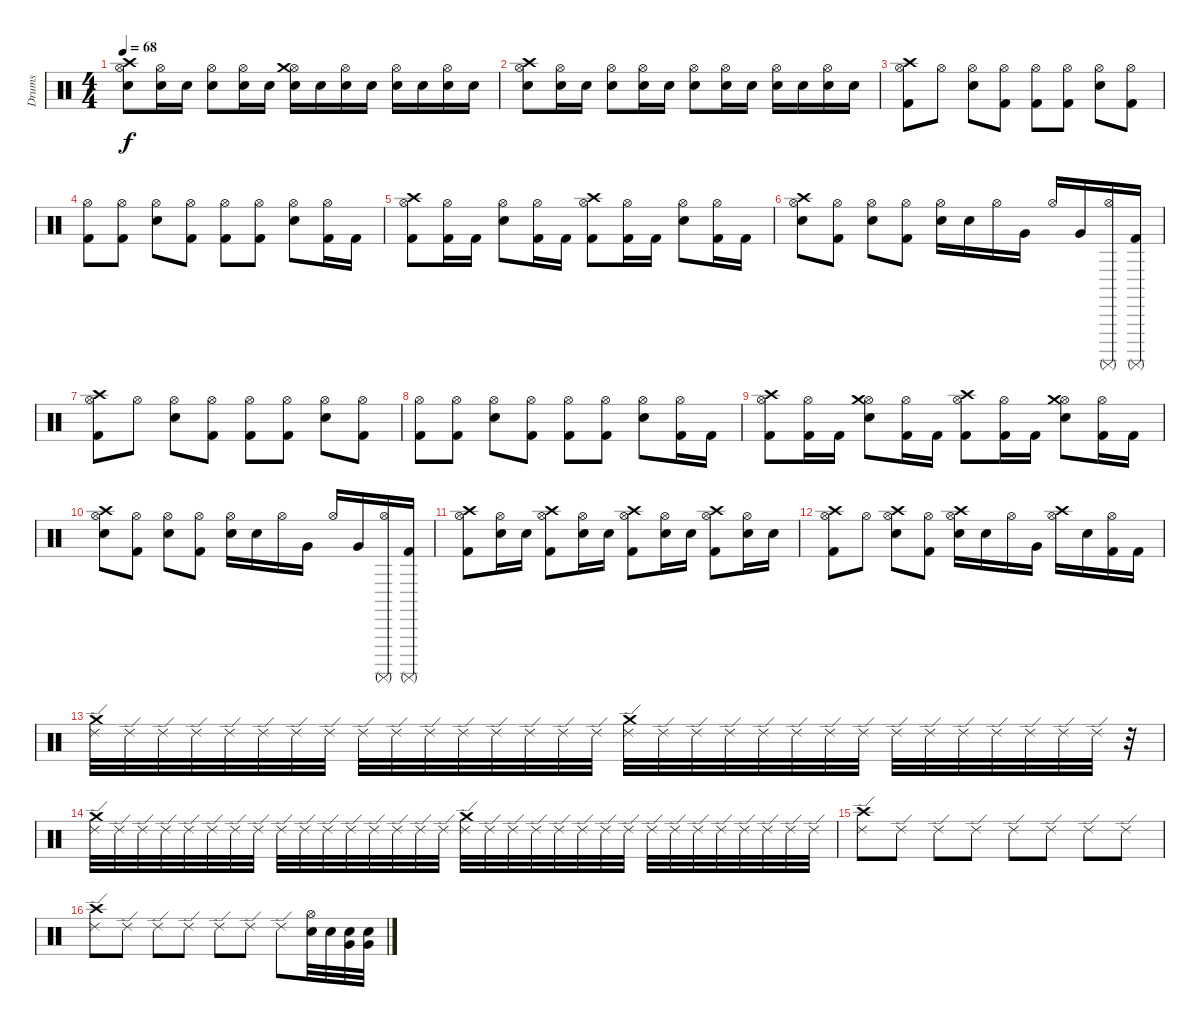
\track ("Drums" "Drums") {instrument percussion}
\staff {score}
\articulation defaults
\ts (4 4)
\tempo 68
\clef neutral
\ks c
("Snare (hit) 2" "Hi-Hat (open)" "Crash high (hit)").8{dy f} ("Snare (hit) 2" "Hi-Hat (open)").16 "Snare (hit) 2".16 ("Snare (hit) 2" "Hi-Hat (open)").8 ("Snare (hit) 2" "Hi-Hat (open)").16 "Snare (hit) 2".16 ("Snare (hit) 2" "Hi-Hat (open)" "Crash medium (hit)").16 "Snare (hit) 2".16 ("Snare (hit) 2" "Hi-Hat (open)").16 "Snare (hit) 2".16 ("Snare (hit) 2" "Hi-Hat (open)").16 "Snare (hit) 2".16 ("Snare (hit) 2" "Hi-Hat (open)").16 "Snare (hit) 2".16 |
("Snare (hit) 2" "Crash high (hit)" "Hi-Hat (open)").8 ("Snare (hit) 2" "Hi-Hat (open)").16 "Snare (hit) 2".16 ("Snare (hit) 2" "Hi-Hat (open)").8 ("Snare (hit) 2" "Hi-Hat (open)").16 "Snare (hit) 2".16 ("Snare (hit) 2" "Hi-Hat (open)").8 ("Snare (hit) 2" "Hi-Hat (open)").16 "Snare (hit) 2".16 ("Snare (hit) 2" "Hi-Hat (open)").16 "Snare (hit) 2".16 ("Snare (hit) 2" "Hi-Hat (open)").16 "Snare (hit) 2".16 |
("Kick (hit) 2" "Hi-Hat (open)" "Crash high (hit)").8 "Hi-Hat (open)".8 ("Snare (hit) 2" "Hi-Hat (open)").8 ("Kick (hit) 2" "Hi-Hat (open)").8 ("Kick (hit) 2" "Hi-Hat (open)").8 ("Kick (hit) 2" "Hi-Hat (open)").8 ("Snare (hit) 2" "Hi-Hat (open)").8 ("Kick (hit) 2" "Hi-Hat (open)").8 |
("Kick (hit) 2" "Hi-Hat (open)").8 ("Kick (hit) 2" "Hi-Hat (open)").8 ("Snare (hit) 2" "Hi-Hat (open)").8 ("Kick (hit) 2" "Hi-Hat (open)").8 ("Kick (hit) 2" "Hi-Hat (open)").8 ("Kick (hit) 2" "Hi-Hat (open)").8 ("Snare (hit) 2" "Hi-Hat (open)").8 ("Kick (hit) 2" "Hi-Hat (open)").16 "Kick (hit) 2".16 |
("Kick (hit) 2" "Crash high (hit)" "Hi-Hat (open)").8 ("Kick (hit) 2" "Hi-Hat (open)").16 "Kick (hit) 2".16 ("Snare (hit) 2" "Hi-Hat (open)").8 ("Kick (hit) 2" "Hi-Hat (open)").16 "Kick (hit) 2".16 ("Kick (hit) 2" "Hi-Hat (open)" "Crash high (hit)").8 ("Kick (hit) 2" "Hi-Hat (open)").16 "Kick (hit) 2".16 ("Snare (hit) 2" "Hi-Hat (open)").8 ("Kick (hit) 2" "Hi-Hat (open)").16 "Kick (hit) 2".16 |
("Snare (hit) 2" "Crash high (hit)" "Hi-Hat (open)").8 ("Kick (hit) 2" "Hi-Hat (open)").8 ("Snare (hit) 2" "Hi-Hat (open)").8 ("Kick (hit) 2" "Hi-Hat (open)").8 ("Snare (hit) 2" "Hi-Hat (open)").16 "Snare (hit) 2".16 "Hi-Hat (open)".16 "Very Low Tom (hit)".16 "Hi-Hat (open)".16 "Very Low Tom (hit)".16 ("Surdo (mute)" "Hi-Hat (open)").16 ("Surdo (mute)" "Kick (hit) 2").16 |
("Kick (hit) 2" "Hi-Hat (open)" "Crash high (hit)").8 "Hi-Hat (open)".8 ("Snare (hit) 2" "Hi-Hat (open)").8 ("Kick (hit) 2" "Hi-Hat (open)").8 ("Kick (hit) 2" "Hi-Hat (open)").8 ("Kick (hit) 2" "Hi-Hat (open)").8 ("Snare (hit) 2" "Hi-Hat (open)").8 ("Kick (hit) 2" "Hi-Hat (open)").8 |
("Kick (hit) 2" "Hi-Hat (open)").8 ("Kick (hit) 2" "Hi-Hat (open)").8 ("Snare (hit) 2" "Hi-Hat (open)").8 ("Kick (hit) 2" "Hi-Hat (open)").8 ("Kick (hit) 2" "Hi-Hat (open)").8 ("Kick (hit) 2" "Hi-Hat (open)").8 ("Snare (hit) 2" "Hi-Hat (open)").8 ("Kick (hit) 2" "Hi-Hat (open)").16 "Kick (hit) 2".16 |
("Kick (hit) 2" "Crash high (hit)" "Hi-Hat (open)").8 ("Kick (hit) 2" "Hi-Hat (open)").16 "Kick (hit) 2".16 ("Snare (hit) 2" "Hi-Hat (open)" "Crash medium (hit)").8 ("Kick (hit) 2" "Hi-Hat (open)").16 "Kick (hit) 2".16 ("Kick (hit) 2" "Hi-Hat (open)" "Crash high (hit)").8 ("Kick (hit) 2" "Hi-Hat (open)").16 "Kick (hit) 2".16 ("Snare (hit) 2" "Hi-Hat (open)" "Crash medium (hit)").8 ("Kick (hit) 2" "Hi-Hat (open)").16 "Kick (hit) 2".16 |
("Snare (hit) 2" "Crash high (hit)" "Hi-Hat (open)").8 ("Kick (hit) 2" "Hi-Hat (open)").8 ("Snare (hit) 2" "Hi-Hat (open)").8 ("Kick (hit) 2" "Hi-Hat (open)").8 ("Snare (hit) 2" "Hi-Hat (open)").16 "Snare (hit) 2".16 "Hi-Hat (open)".16 "Very Low Tom (hit)".16 "Hi-Hat (open)".16 "Very Low Tom (hit)".16 ("Surdo (mute)" "Hi-Hat (open)").16 ("Surdo (mute)" "Kick (hit) 2").16 |
("Kick (hit) 2" "Crash high (hit)" "Hi-Hat (open)").8 ("Snare (hit) 2" "Hi-Hat (open)").16 "Snare (hit) 2".16 ("Kick (hit) 2" "Crash high (hit)" "Hi-Hat (open)").8 ("Snare (hit) 2" "Hi-Hat (open)").16 "Snare (hit) 2".16 ("Kick (hit) 2" "Hi-Hat (open)" "Crash high (hit)").8 ("Snare (hit) 2" "Hi-Hat (open)").16 "Snare (hit) 2".16 ("Kick (hit) 2" "Hi-Hat (open)" "Crash high (hit)").8 ("Snare (hit) 2" "Hi-Hat (open)").16 "Snare (hit) 2".16 |
("Kick (hit) 2" "Crash high (hit)" "Hi-Hat (open)").8 "Hi-Hat (open)".8 ("Snare (hit) 2" "Hi-Hat (open)" "Crash high (hit)").8 ("Kick (hit) 2" "Hi-Hat (open)").8 ("Snare (hit) 2" "Hi-Hat (open)" "Crash high (hit)").16 "Snare (hit) 2".16 "Hi-Hat (open)".16 "Very Low Tom (hit)".16 ("Hi-Hat (open)" "Crash high (hit)").16 "Snare (hit) 2".16 ("Kick (hit) 2" "Hi-Hat (open)").16 "Kick (hit) 2".16 |
("Ride (edge) 2" "Crash medium (hit)").32 "Ride (edge) 2".32 "Ride (edge) 2".32 "Ride (edge) 2".32 "Ride (edge) 2".32 "Ride (edge) 2".32 "Ride (edge) 2".32 "Ride (edge) 2".32 "Ride (edge) 2".32 "Ride (edge) 2".32 "Ride (edge) 2".32 "Ride (edge) 2".32 "Ride (edge) 2".32 "Ride (edge) 2".32 "Ride (edge) 2".32 "Ride (edge) 2".32 ("Crash medium (hit)" "Ride (edge) 2").32 "Ride (edge) 2".32 "Ride (edge) 2".32 "Ride (edge) 2".32 "Ride (edge) 2".32 "Ride (edge) 2".32 "Ride (edge) 2".32 "Ride (edge) 2".32 "Ride (edge) 2".32 "Ride (edge) 2".32 "Ride (edge) 2".32 "Ride (edge) 2".32 "Ride (edge) 2".32 "Ride (edge) 2".32 "Ride (edge) 2".32 r.32 |
("Crash medium (hit)" "Ride (edge) 2").32 "Ride (edge) 2".32 "Ride (edge) 2".32 "Ride (edge) 2".32 "Ride (edge) 2".32 "Ride (edge) 2".32 "Ride (edge) 2".32 "Ride (edge) 2".32 "Ride (edge) 2".32 "Ride (edge) 2".32 "Ride (edge) 2".32 "Ride (edge) 2".32 "Ride (edge) 2".32 "Ride (edge) 2".32 "Ride (edge) 2".32 "Ride (edge) 2".32 ("Ride (edge) 2" "Crash medium (hit)").32 "Ride (edge) 2".32 "Ride (edge) 2".32 "Ride (edge) 2".32 "Ride (edge) 2".32 "Ride (edge) 2".32 "Ride (edge) 2".32 "Ride (edge) 2".32 "Ride (edge) 2".32 "Ride (edge) 2".32 "Ride (edge) 2".32 "Ride (edge) 2".32 "Ride (edge) 2".32 "Ride (edge) 2".32 "Ride (edge) 2".32 "Ride (edge) 2".32 |
("Crash high (hit)" "Ride (edge) 2").8 "Ride (edge) 2".8 "Ride (edge) 2".8 "Ride (edge) 2".8 "Ride (edge) 2".8 "Ride (edge) 2".8 "Ride (edge) 2".8 "Ride (edge) 2".8 |
("Crash high (hit)" "Ride (edge) 2").8 "Ride (edge) 2".8 "Ride (edge) 2".8 "Ride (edge) 2".8 "Ride (edge) 2".8 "Ride (edge) 2".8 "Ride (edge) 2".8 ("Snare (hit) 2" "Hi-Hat (open)").32 "Snare (hit) 2".32 ("Snare (hit) 2" "Very Low Tom (hit)").32 ("Snare (hit) 2" "Very Low Tom (hit)").32
